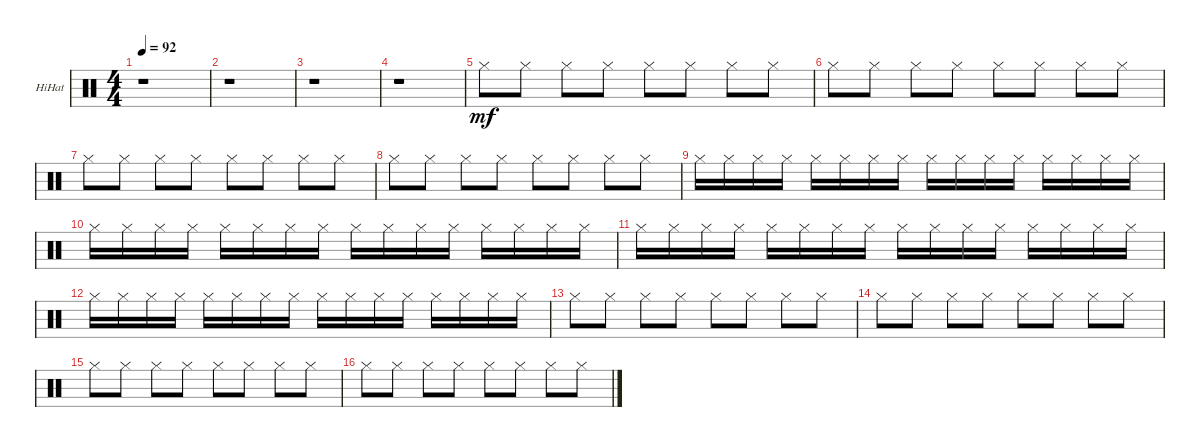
\bracketExtendMode groupsimilarinstruments
\firstSystemTrackNameOrientation horizontal
\otherSystemsTrackNameOrientation horizontal
\track (" HiHat" " HiHat") {instrument percussion}
\staff {score}
\articulation defaults
\ts (4 4)
\tempo 92
\clef neutral
\ks c
r.1{dy mf} |
r.1 |
r.1 |
r.1 |
"Hi-Hat (closed)".8 "Hi-Hat (closed)".8 "Hi-Hat (closed)".8 "Hi-Hat (closed)".8 "Hi-Hat (closed)".8 "Hi-Hat (closed)".8 "Hi-Hat (closed)".8 "Hi-Hat (closed)".8 |
"Hi-Hat (closed)".8 "Hi-Hat (closed)".8 "Hi-Hat (closed)".8 "Hi-Hat (closed)".8 "Hi-Hat (closed)".8 "Hi-Hat (closed)".8 "Hi-Hat (closed)".8 "Hi-Hat (closed)".8 |
"Hi-Hat (closed)".8 "Hi-Hat (closed)".8 "Hi-Hat (closed)".8 "Hi-Hat (closed)".8 "Hi-Hat (closed)".8 "Hi-Hat (closed)".8 "Hi-Hat (closed)".8 "Hi-Hat (closed)".8 |
"Hi-Hat (closed)".8 "Hi-Hat (closed)".8 "Hi-Hat (closed)".8 "Hi-Hat (closed)".8 "Hi-Hat (closed)".8 "Hi-Hat (closed)".8 "Hi-Hat (closed)".8 "Hi-Hat (closed)".8 |
"Hi-Hat (closed)".16 "Hi-Hat (closed)".16 "Hi-Hat (closed)".16 "Hi-Hat (closed)".16 "Hi-Hat (closed)".16 "Hi-Hat (closed)".16 "Hi-Hat (closed)".16 "Hi-Hat (closed)".16 "Hi-Hat (closed)".16 "Hi-Hat (closed)".16 "Hi-Hat (closed)".16 "Hi-Hat (closed)".16 "Hi-Hat (closed)".16 "Hi-Hat (closed)".16 "Hi-Hat (closed)".16 "Hi-Hat (closed)".16 |
"Hi-Hat (closed)".16 "Hi-Hat (closed)".16 "Hi-Hat (closed)".16 "Hi-Hat (closed)".16 "Hi-Hat (closed)".16 "Hi-Hat (closed)".16 "Hi-Hat (closed)".16 "Hi-Hat (closed)".16 "Hi-Hat (closed)".16 "Hi-Hat (closed)".16 "Hi-Hat (closed)".16 "Hi-Hat (closed)".16 "Hi-Hat (closed)".16 "Hi-Hat (closed)".16 "Hi-Hat (closed)".16 "Hi-Hat (closed)".16 |
"Hi-Hat (closed)".16 "Hi-Hat (closed)".16 "Hi-Hat (closed)".16 "Hi-Hat (closed)".16 "Hi-Hat (closed)".16 "Hi-Hat (closed)".16 "Hi-Hat (closed)".16 "Hi-Hat (closed)".16 "Hi-Hat (closed)".16 "Hi-Hat (closed)".16 "Hi-Hat (closed)".16 "Hi-Hat (closed)".16 "Hi-Hat (closed)".16 "Hi-Hat (closed)".16 "Hi-Hat (closed)".16 "Hi-Hat (closed)".16 |
"Hi-Hat (closed)".16 "Hi-Hat (closed)".16 "Hi-Hat (closed)".16 "Hi-Hat (closed)".16 "Hi-Hat (closed)".16 "Hi-Hat (closed)".16 "Hi-Hat (closed)".16 "Hi-Hat (closed)".16 "Hi-Hat (closed)".16 "Hi-Hat (closed)".16 "Hi-Hat (closed)".16 "Hi-Hat (closed)".16 "Hi-Hat (closed)".16 "Hi-Hat (closed)".16 "Hi-Hat (closed)".16 "Hi-Hat (closed)".16 |
"Hi-Hat (closed)".8 "Hi-Hat (closed)".8 "Hi-Hat (closed)".8 "Hi-Hat (closed)".8 "Hi-Hat (closed)".8 "Hi-Hat (closed)".8 "Hi-Hat (closed)".8 "Hi-Hat (closed)".8 |
"Hi-Hat (closed)".8 "Hi-Hat (closed)".8 "Hi-Hat (closed)".8 "Hi-Hat (closed)".8 "Hi-Hat (closed)".8 "Hi-Hat (closed)".8 "Hi-Hat (closed)".8 "Hi-Hat (closed)".8 |
"Hi-Hat (closed)".8 "Hi-Hat (closed)".8 "Hi-Hat (closed)".8 "Hi-Hat (closed)".8 "Hi-Hat (closed)".8 "Hi-Hat (closed)".8 "Hi-Hat (closed)".8 "Hi-Hat (closed)".8 |
"Hi-Hat (closed)".8 "Hi-Hat (closed)".8 "Hi-Hat (closed)".8 "Hi-Hat (closed)".8 "Hi-Hat (closed)".8 "Hi-Hat (closed)".8 "Hi-Hat (closed)".8 "Hi-Hat (closed)".8
